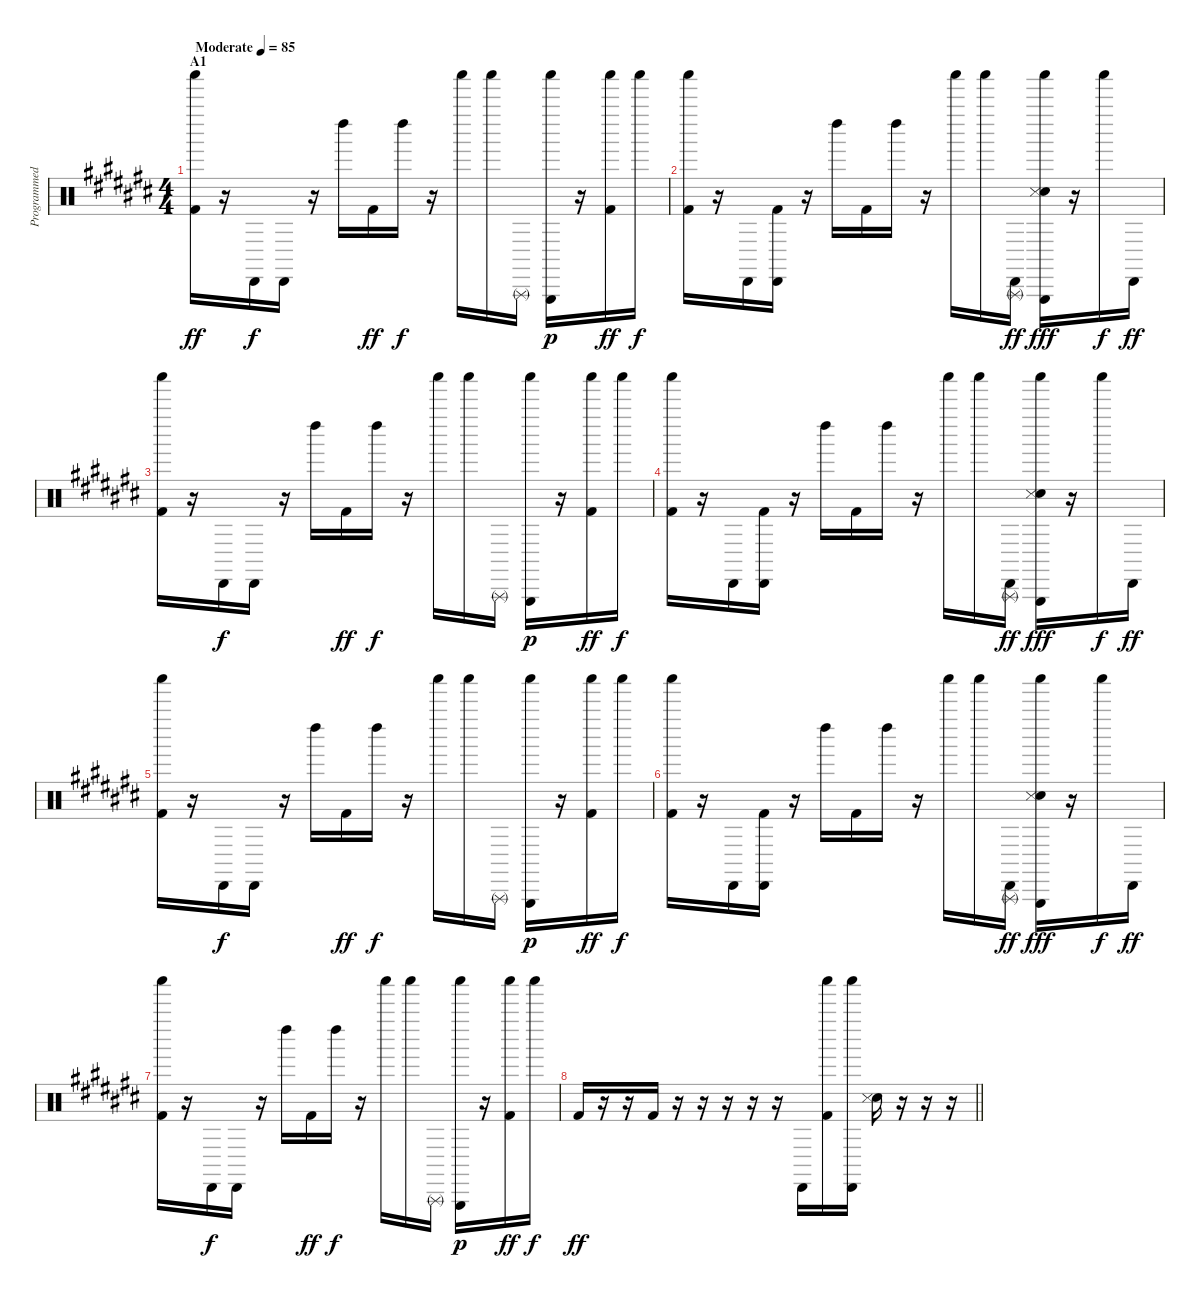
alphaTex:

\track ("Programmed Drum" "Programmed") {instrument percussion}
\staff {score}
\articulation defaults
\ts (4 4)
\section ("" "A1")
\tempo (85 "Moderate")
\clef neutral
\ks c#
("Shaker (hit)" "Kick (hit) 2").16{dy ff} r.16 "Cabasa (hit)".16{dy f} "Cabasa (hit)".16 r.16 "Left Maraca (hit)".16 "Kick (hit) 2".16{dy ff} "Left Maraca (hit)".16{dy f} r.16 "Shaker (hit)".16 "Shaker (hit)".16 "Triangle (rnute)".16 ("Shaker (hit)" "Triangle (hit)").16{dy p} r.16 ("Shaker (hit)" "Kick (hit) 2").16{dy ff} "Shaker (hit)".16{dy f} |
("Shaker (hit)" "Kick (hit) 2").16 r.16 "Cabasa (hit)".16 ("Kick (hit) 2" "Cabasa (hit)").16 r.16 "Left Maraca (hit)".16 "Kick (hit) 2".16 "Left Maraca (hit)".16 r.16 "Shaker (hit)".16 "Shaker (hit)".16 ("Cabasa (hit)" "Triangle (rnute)").16{dy ff} ("Hand Clap (hit)" "Shaker (hit)" "Triangle (hit)" "Snare (side stick) 3").16{dy fff} r.16 "Shaker (hit)".16{dy f} "Cabasa (hit)".16{dy ff} |
("Shaker (hit)" "Kick (hit) 2").16 r.16 "Cabasa (hit)".16{dy f} "Cabasa (hit)".16 r.16 "Left Maraca (hit)".16 "Kick (hit) 2".16{dy ff} "Left Maraca (hit)".16{dy f} r.16 "Shaker (hit)".16 "Shaker (hit)".16 "Triangle (rnute)".16 ("Shaker (hit)" "Triangle (hit)").16{dy p} r.16 ("Shaker (hit)" "Kick (hit) 2").16{dy ff} "Shaker (hit)".16{dy f} |
("Shaker (hit)" "Kick (hit) 2").16 r.16 "Cabasa (hit)".16 ("Kick (hit) 2" "Cabasa (hit)").16 r.16 "Left Maraca (hit)".16 "Kick (hit) 2".16 "Left Maraca (hit)".16 r.16 "Shaker (hit)".16 "Shaker (hit)".16 ("Cabasa (hit)" "Triangle (rnute)").16{dy ff} ("Hand Clap (hit)" "Shaker (hit)" "Triangle (hit)" "Snare (side stick) 3").16{dy fff} r.16 "Shaker (hit)".16{dy f} "Cabasa (hit)".16{dy ff} |
("Shaker (hit)" "Kick (hit) 2").16 r.16 "Cabasa (hit)".16{dy f} "Cabasa (hit)".16 r.16 "Left Maraca (hit)".16 "Kick (hit) 2".16{dy ff} "Left Maraca (hit)".16{dy f} r.16 "Shaker (hit)".16 "Shaker (hit)".16 "Triangle (rnute)".16 ("Shaker (hit)" "Triangle (hit)").16{dy p} r.16 ("Shaker (hit)" "Kick (hit) 2").16{dy ff} "Shaker (hit)".16{dy f} |
("Shaker (hit)" "Kick (hit) 2").16 r.16 "Cabasa (hit)".16 ("Kick (hit) 2" "Cabasa (hit)").16 r.16 "Left Maraca (hit)".16 "Kick (hit) 2".16 "Left Maraca (hit)".16 r.16 "Shaker (hit)".16 "Shaker (hit)".16 ("Cabasa (hit)" "Triangle (rnute)").16{dy ff} ("Hand Clap (hit)" "Shaker (hit)" "Triangle (hit)" "Snare (side stick) 3").16{dy fff} r.16 "Shaker (hit)".16{dy f} "Cabasa (hit)".16{dy ff} |
("Shaker (hit)" "Kick (hit) 2").16 r.16 "Cabasa (hit)".16{dy f} "Cabasa (hit)".16 r.16 "Left Maraca (hit)".16 "Kick (hit) 2".16{dy ff} "Left Maraca (hit)".16{dy f} r.16 "Shaker (hit)".16 "Shaker (hit)".16 "Triangle (rnute)".16 ("Shaker (hit)" "Triangle (hit)").16{dy p} r.16 ("Shaker (hit)" "Kick (hit) 2").16{dy ff} "Shaker (hit)".16{dy f} |
\barLineRight lightlight "Kick (hit) 2".16{dy ff}
r.16 r.16 "Kick (hit) 2".16 r.16 r.16 r.16 r.16 r.16 "Cabasa (hit)".16 ("Shaker (hit)" "Kick (hit) 2").16 ("Shaker (hit)" "Cabasa (hit)").16 ("Hand Clap (hit)" "Snare (side stick) 3").16 r.16 r.16 r.16
